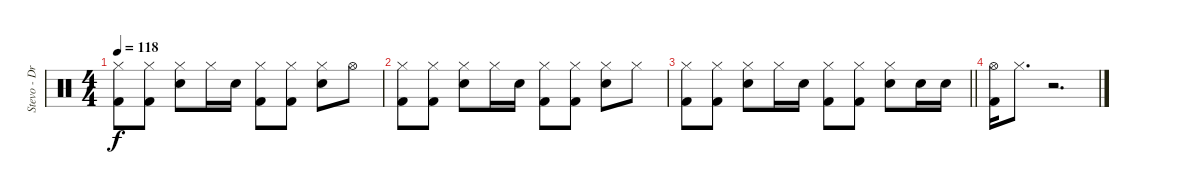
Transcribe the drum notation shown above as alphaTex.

\track ("Stevo - Drums" "Stevo - Dr") {instrument percussion}
\staff {score}
\articulation defaults
\ts (4 4)
\tempo 118
\clef neutral
\ks c
("Hi-Hat (closed)" "Kick (hit) 2").8{dy f} ("Hi-Hat (closed)" "Kick (hit) 2").8 ("Hi-Hat (closed)" "Snare (hit) 2").8 "Hi-Hat (closed)".16 "Snare (hit) 2".16 ("Hi-Hat (closed)" "Kick (hit) 2").8 ("Hi-Hat (closed)" "Kick (hit) 2").8 ("Hi-Hat (closed)" "Snare (hit) 2").8 "Hi-Hat (open)".8 |
("Hi-Hat (closed)" "Kick (hit) 2").8 ("Hi-Hat (closed)" "Kick (hit) 2").8 ("Hi-Hat (closed)" "Snare (hit) 2").8 "Hi-Hat (closed)".16 "Snare (hit) 2".16 ("Hi-Hat (closed)" "Kick (hit) 2").8 ("Hi-Hat (closed)" "Kick (hit) 2").8 ("Hi-Hat (closed)" "Snare (hit) 2").8 "Hi-Hat (closed)".8 |
\barLineRight lightlight
("Hi-Hat (closed)" "Kick (hit) 2").8 ("Hi-Hat (closed)" "Kick (hit) 2").8 ("Hi-Hat (closed)" "Snare (hit) 2").8 "Hi-Hat (closed)".16 "Snare (hit) 2".16 ("Hi-Hat (closed)" "Kick (hit) 2").8 ("Hi-Hat (closed)" "Kick (hit) 2").8 ("Hi-Hat (closed)" "Snare (hit) 2").8 "Snare (hit) 2".16 "Snare (hit) 2".16 |
("Hi-Hat (open)" "Kick (hit) 2").16 "Hi-Hat (closed)".8{d} r.2{d}
